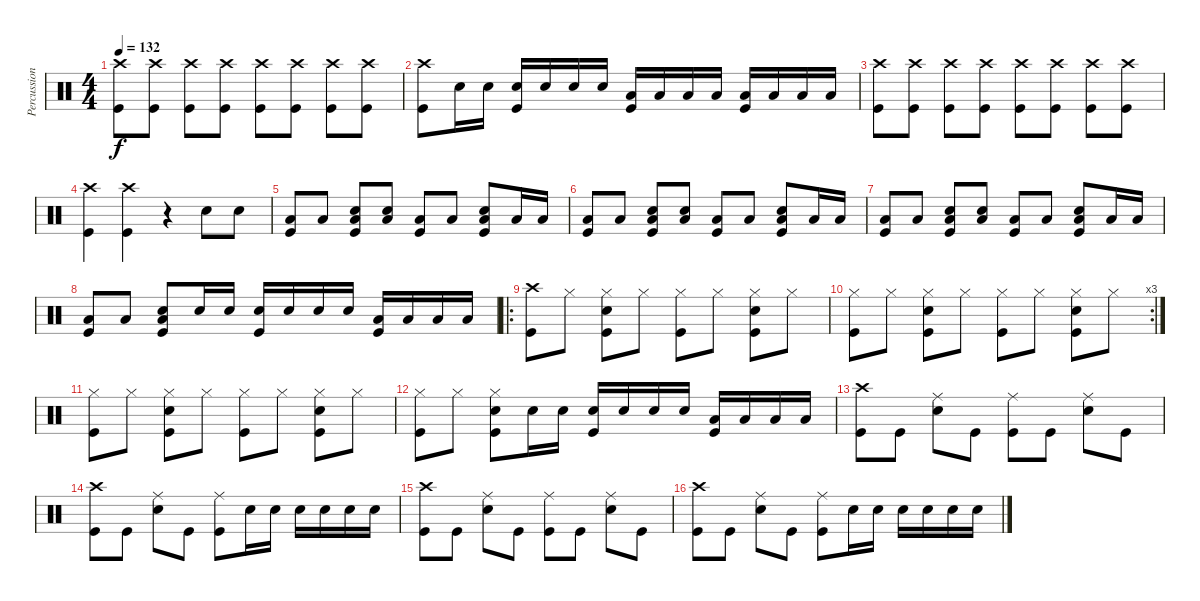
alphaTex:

\track ("Percussioni" "Percussion") {instrument percussion}
\staff {score}
\articulation defaults
\ts (4 4)
\tempo 132
\clef neutral
\ks c
("Crash high (hit)" "Kick (hit)").8{dy f} ("Crash high (hit)" "Kick (hit)").8 ("Crash high (hit)" "Kick (hit)").8 ("Crash high (hit)" "Kick (hit)").8 ("Crash high (hit)" "Kick (hit)").8 ("Crash high (hit)" "Kick (hit)").8 ("Crash high (hit)" "Kick (hit)").8 ("Crash high (hit)" "Kick (hit)").8 |
("Crash high (hit)" "Kick (hit)").8 "Snare (hit) 2".16 "Snare (hit) 2".16 ("Snare (hit) 2" "Kick (hit)").16 "Snare (hit) 2".16 "Snare (hit) 2".16 "Snare (hit) 2".16 ("Low Tom (hit)" "Kick (hit)").16 "Low Tom (hit)".16 "Low Tom (hit)".16 "Low Tom (hit)".16 ("Low Tom (hit)" "Kick (hit)").16 "Low Tom (hit)".16 "Low Tom (hit)".16 "Low Tom (hit)".16 |
("Crash high (hit)" "Kick (hit)").8 ("Crash high (hit)" "Kick (hit)").8 ("Crash high (hit)" "Kick (hit)").8 ("Crash high (hit)" "Kick (hit)").8 ("Crash high (hit)" "Kick (hit)").8 ("Crash high (hit)" "Kick (hit)").8 ("Crash high (hit)" "Kick (hit)").8 ("Crash high (hit)" "Kick (hit)").8 |
("Crash high (hit)" "Kick (hit)").4 ("Crash high (hit)" "Kick (hit)").4 r.4 "Snare (hit) 2".8 "Snare (hit) 2".8 |
("Low Tom (hit)" "Kick (hit)").8 "Low Tom (hit)".8 ("Low Tom (hit)" "Snare (hit) 2" "Kick (hit)").8 ("Low Tom (hit)" "Snare (hit) 2").8 ("Low Tom (hit)" "Kick (hit)").8 "Low Tom (hit)".8 ("Low Tom (hit)" "Snare (hit) 2" "Kick (hit)").8 "Low Tom (hit)".16 "Low Tom (hit)".16 |
("Low Tom (hit)" "Kick (hit)").8 "Low Tom (hit)".8 ("Low Tom (hit)" "Snare (hit) 2" "Kick (hit)").8 ("Low Tom (hit)" "Snare (hit) 2").8 ("Low Tom (hit)" "Kick (hit)").8 "Low Tom (hit)".8 ("Low Tom (hit)" "Snare (hit) 2" "Kick (hit)").8 "Low Tom (hit)".16 "Low Tom (hit)".16 |
("Low Tom (hit)" "Kick (hit)").8 "Low Tom (hit)".8 ("Low Tom (hit)" "Snare (hit) 2" "Kick (hit)").8 ("Low Tom (hit)" "Snare (hit) 2").8 ("Low Tom (hit)" "Kick (hit)").8 "Low Tom (hit)".8 ("Low Tom (hit)" "Snare (hit) 2" "Kick (hit)").8 "Low Tom (hit)".16 "Low Tom (hit)".16 |
("Low Tom (hit)" "Kick (hit)").8 "Low Tom (hit)".8 ("Low Tom (hit)" "Snare (hit) 2" "Kick (hit)").8 "Snare (hit) 2".16 "Snare (hit) 2".16 ("Snare (hit) 2" "Kick (hit)").16 "Snare (hit) 2".16 "Snare (hit) 2".16 "Snare (hit) 2".16 ("Low Tom (hit)" "Kick (hit)").16 "Low Tom (hit)".16 "Low Tom (hit)".16 "Low Tom (hit)".16 |
\ro
("Crash high (hit)" "Kick (hit)").8 "Hi-Hat (closed)".8 ("Hi-Hat (closed)" "Snare (hit) 2" "Kick (hit)").8 "Hi-Hat (closed)".8 ("Hi-Hat (closed)" "Kick (hit)").8 "Hi-Hat (closed)".8 ("Hi-Hat (closed)" "Snare (hit) 2" "Kick (hit)").8 "Hi-Hat (closed)".8 |
\rc 3
("Hi-Hat (closed)" "Kick (hit)").8 "Hi-Hat (closed)".8 ("Hi-Hat (closed)" "Snare (hit) 2" "Kick (hit)").8 "Hi-Hat (closed)".8 ("Hi-Hat (closed)" "Kick (hit)").8 "Hi-Hat (closed)".8 ("Hi-Hat (closed)" "Snare (hit) 2" "Kick (hit)").8 "Hi-Hat (closed)".8 |
("Hi-Hat (closed)" "Kick (hit)").8 "Hi-Hat (closed)".8 ("Hi-Hat (closed)" "Snare (hit) 2" "Kick (hit)").8 "Hi-Hat (closed)".8 ("Hi-Hat (closed)" "Kick (hit)").8 "Hi-Hat (closed)".8 ("Hi-Hat (closed)" "Snare (hit) 2" "Kick (hit)").8 "Hi-Hat (closed)".8 |
("Hi-Hat (closed)" "Kick (hit)").8 "Hi-Hat (closed)".8 ("Hi-Hat (closed)" "Snare (hit) 2" "Kick (hit)").8 "Snare (hit) 2".16 "Snare (hit) 2".16 ("Snare (hit) 2" "Kick (hit)").16 "Snare (hit) 2".16 "Snare (hit) 2".16 "Snare (hit) 2".16 ("Low Tom (hit)" "Kick (hit)").16 "Low Tom (hit)".16 "Low Tom (hit)".16 "Low Tom (hit)".16 |
("Crash high (hit)" "Kick (hit)").8 "Kick (hit)".8 ("Ride (middle)" "Snare (hit) 2").8 "Kick (hit)".8 ("Ride (middle)" "Kick (hit)").8 "Kick (hit)".8 ("Ride (middle)" "Snare (hit) 2").8 "Kick (hit)".8 |
("Crash high (hit)" "Kick (hit)").8 "Kick (hit)".8 ("Ride (middle)" "Snare (hit) 2").8 "Kick (hit)".8 ("Ride (middle)" "Kick (hit)").8 "Snare (hit) 2".16 "Snare (hit) 2".16 "Snare (hit) 2".16 "Snare (hit) 2".16 "Snare (hit) 2".16 "Snare (hit) 2".16 |
("Crash high (hit)" "Kick (hit)").8 "Kick (hit)".8 ("Ride (middle)" "Snare (hit) 2").8 "Kick (hit)".8 ("Ride (middle)" "Kick (hit)").8 "Kick (hit)".8 ("Ride (middle)" "Snare (hit) 2").8 "Kick (hit)".8 |
("Crash high (hit)" "Kick (hit)").8 "Kick (hit)".8 ("Ride (middle)" "Snare (hit) 2").8 "Kick (hit)".8 ("Ride (middle)" "Kick (hit)").8 "Snare (hit) 2".16 "Snare (hit) 2".16 "Snare (hit) 2".16 "Snare (hit) 2".16 "Snare (hit) 2".16 "Snare (hit) 2".16
